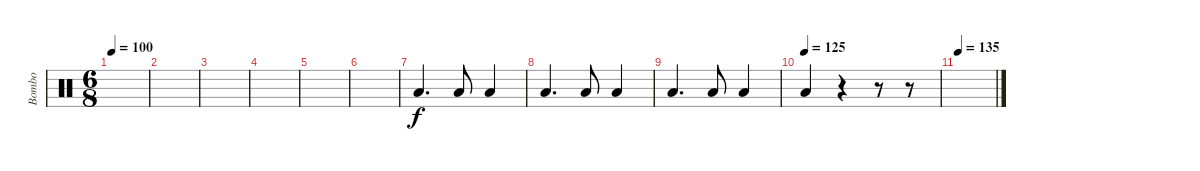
\track ("Bombo" "Bombo") {instrument percussion}
\staff {score}
\articulation defaults
\ts (6 8)
\tempo 100
\clef neutral
\ks c
|
|
|
|
|
|
"Low Floor Tom (hit)".4{d} "Low Floor Tom (hit)".8 "Low Floor Tom (hit)".4 |
"Low Floor Tom (hit)".4{d} "Low Floor Tom (hit)".8 "Low Floor Tom (hit)".4 |
"Low Floor Tom (hit)".4{d} "Low Floor Tom (hit)".8 "Low Floor Tom (hit)".4 |
\tempo (125)
"Low Floor Tom (hit)".4 r.4 r.8 r.8 |
\tempo 135
